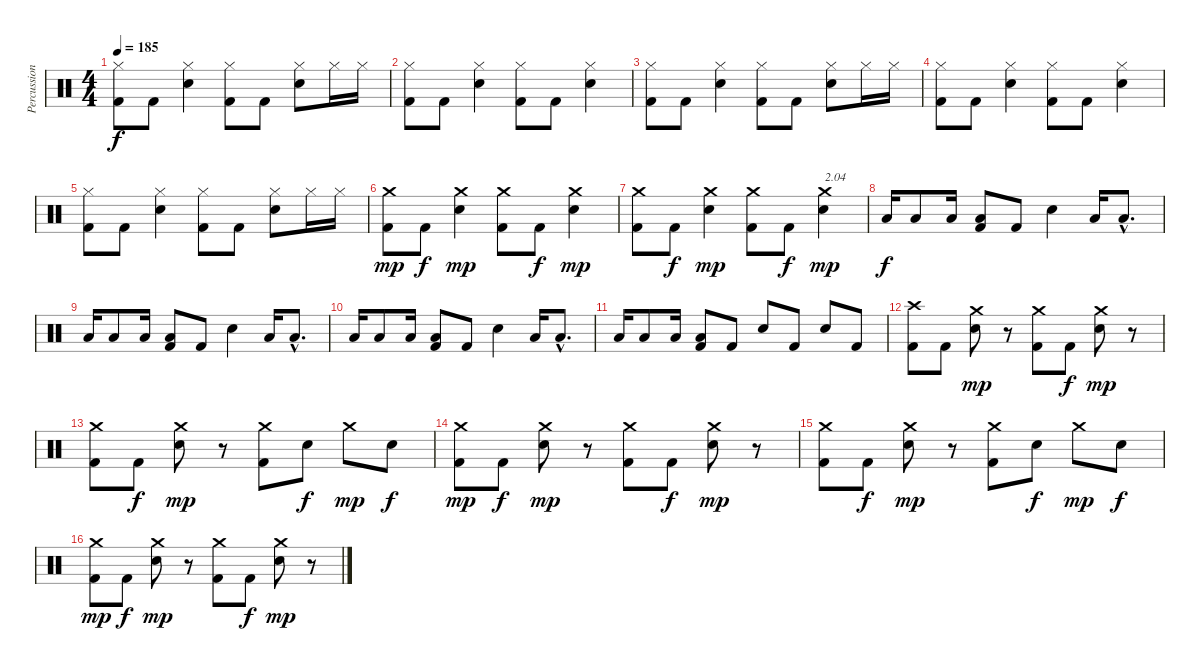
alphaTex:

\track ("Percussions" "Percussion") {instrument percussion}
\staff {score}
\articulation defaults
\ts (4 4)
\tempo 185
\clef neutral
\ks c
("Kick (hit) 2" "Hi-Hat (closed)").8{dy f} "Kick (hit) 2".8 ("Electric Snare (hit)" "Hi-Hat (closed)").4 ("Kick (hit) 2" "Hi-Hat (closed)").8 "Kick (hit) 2".8 ("Electric Snare (hit)" "Hi-Hat (closed)").8 "Hi-Hat (closed)".16 "Hi-Hat (closed)".16 |
("Kick (hit) 2" "Hi-Hat (closed)").8 "Kick (hit) 2".8 ("Electric Snare (hit)" "Hi-Hat (closed)").4 ("Kick (hit) 2" "Hi-Hat (closed)").8 "Kick (hit) 2".8 ("Electric Snare (hit)" "Hi-Hat (closed)").4 |
("Kick (hit) 2" "Hi-Hat (closed)").8 "Kick (hit) 2".8 ("Electric Snare (hit)" "Hi-Hat (closed)").4 ("Kick (hit) 2" "Hi-Hat (closed)").8 "Kick (hit) 2".8 ("Electric Snare (hit)" "Hi-Hat (closed)").8 "Hi-Hat (closed)".16 "Hi-Hat (closed)".16 |
("Kick (hit) 2" "Hi-Hat (closed)").8 "Kick (hit) 2".8 ("Electric Snare (hit)" "Hi-Hat (closed)").4 ("Kick (hit) 2" "Hi-Hat (closed)").8 "Kick (hit) 2".8 ("Electric Snare (hit)" "Hi-Hat (closed)").4 |
("Kick (hit) 2" "Hi-Hat (closed)").8 "Kick (hit) 2".8 ("Electric Snare (hit)" "Hi-Hat (closed)").4 ("Kick (hit) 2" "Hi-Hat (closed)").8 "Kick (hit) 2".8 ("Electric Snare (hit)" "Hi-Hat (closed)").8 "Hi-Hat (closed)".16 "Hi-Hat (closed)".16 |
("Kick (hit) 2" "Crash medium (hit)").8{dy mp} "Kick (hit) 2".8{dy f} ("Electric Snare (hit)" "Crash medium (hit)").4{dy mp} ("Kick (hit) 2" "Crash medium (hit)").8 "Kick (hit) 2".8{dy f} ("Electric Snare (hit)" "Crash medium (hit)").4{dy mp} |
("Kick (hit) 2" "Crash medium (hit)").8 "Kick (hit) 2".8{dy f} ("Electric Snare (hit)" "Crash medium (hit)").4{dy mp} ("Kick (hit) 2" "Crash medium (hit)").8 "Kick (hit) 2".8{dy f} ("Electric Snare (hit)" "Crash medium (hit)").4{txt "2.04" dy mp} |
"Low Floor Tom (hit)".16{dy f} "Low Floor Tom (hit)".8 "Low Floor Tom (hit)".16 ("Kick (hit) 2" "Low Floor Tom (hit)").8 "Kick (hit) 2".8 "Electric Snare (hit)".4 "Low Floor Tom (hit)".16 "Low Floor Tom (hit)"{hac}.8{d} |
"Low Floor Tom (hit)".16 "Low Floor Tom (hit)".8 "Low Floor Tom (hit)".16 ("Kick (hit) 2" "Low Floor Tom (hit)").8 "Kick (hit) 2".8 "Electric Snare (hit)".4 "Low Floor Tom (hit)".16 "Low Floor Tom (hit)"{hac}.8{d} |
"Low Floor Tom (hit)".16 "Low Floor Tom (hit)".8 "Low Floor Tom (hit)".16 ("Kick (hit) 2" "Low Floor Tom (hit)").8 "Kick (hit) 2".8 "Electric Snare (hit)".4 "Low Floor Tom (hit)".16 "Low Floor Tom (hit)"{hac}.8{d} |
"Low Floor Tom (hit)".16 "Low Floor Tom (hit)".8 "Low Floor Tom (hit)".16 ("Kick (hit) 2" "Low Floor Tom (hit)").8 "Kick (hit) 2".8 "Electric Snare (hit)".8 "Kick (hit) 2".8 "Electric Snare (hit)".8 "Kick (hit) 2".8 |
("Kick (hit) 2" "Crash high (hit)").8 "Kick (hit) 2".8 ("Electric Snare (hit)" "Crash medium (hit)").8{dy mp} r.8 ("Kick (hit) 2" "Crash medium (hit)").8 "Kick (hit) 2".8{dy f} ("Electric Snare (hit)" "Crash medium (hit)").8{dy mp} r.8 |
("Kick (hit) 2" "Crash medium (hit)").8 "Kick (hit) 2".8{dy f} ("Electric Snare (hit)" "Crash medium (hit)").8{dy mp} r.8 ("Kick (hit) 2" "Crash medium (hit)").8 "Electric Snare (hit)".8{dy f} "Crash medium (hit)".8{dy mp} "Electric Snare (hit)".8{dy f} |
("Kick (hit) 2" "Crash medium (hit)").8{dy mp} "Kick (hit) 2".8{dy f} ("Electric Snare (hit)" "Crash medium (hit)").8{dy mp} r.8 ("Kick (hit) 2" "Crash medium (hit)").8 "Kick (hit) 2".8{dy f} ("Electric Snare (hit)" "Crash medium (hit)").8{dy mp} r.8 |
("Kick (hit) 2" "Crash medium (hit)").8 "Kick (hit) 2".8{dy f} ("Electric Snare (hit)" "Crash medium (hit)").8{dy mp} r.8 ("Kick (hit) 2" "Crash medium (hit)").8 "Electric Snare (hit)".8{dy f} "Crash medium (hit)".8{dy mp} "Electric Snare (hit)".8{dy f} |
("Kick (hit) 2" "Crash medium (hit)").8{dy mp} "Kick (hit) 2".8{dy f} ("Electric Snare (hit)" "Crash medium (hit)").8{dy mp} r.8 ("Kick (hit) 2" "Crash medium (hit)").8 "Kick (hit) 2".8{dy f} ("Electric Snare (hit)" "Crash medium (hit)").8{dy mp} r.8
